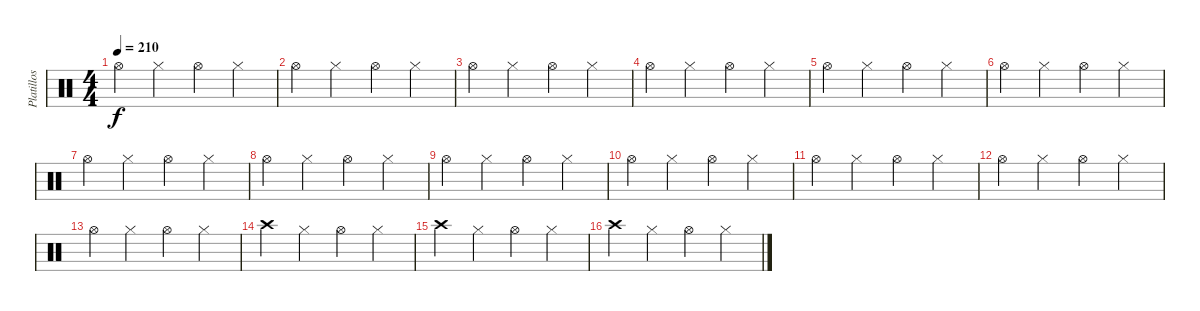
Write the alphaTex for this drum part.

\track ("Platillos (Leo)" "Platillos ") {instrument percussion}
\staff {score}
\articulation defaults
\ts (4 4)
\tempo 210
\clef neutral
\ks c "Hi-Hat (open)".4{dy f} "Hi-Hat (closed)".4 "Hi-Hat (open)".4 "Hi-Hat (closed)".4
|
"Hi-Hat (open)".4 "Hi-Hat (closed)".4 "Hi-Hat (open)".4 "Hi-Hat (closed)".4 |
"Hi-Hat (open)".4 "Hi-Hat (closed)".4 "Hi-Hat (open)".4 "Hi-Hat (closed)".4 |
"Hi-Hat (open)".4 "Hi-Hat (closed)".4 "Hi-Hat (open)".4 "Hi-Hat (closed)".4 |
"Hi-Hat (open)".4 "Hi-Hat (closed)".4 "Hi-Hat (open)".4 "Hi-Hat (closed)".4 |
"Hi-Hat (open)".4 "Hi-Hat (closed)".4 "Hi-Hat (open)".4 "Hi-Hat (closed)".4 |
"Hi-Hat (open)".4 "Hi-Hat (closed)".4 "Hi-Hat (open)".4 "Hi-Hat (closed)".4 |
"Hi-Hat (open)".4 "Hi-Hat (closed)".4 "Hi-Hat (open)".4 "Hi-Hat (closed)".4 |
"Hi-Hat (open)".4 "Hi-Hat (closed)".4 "Hi-Hat (open)".4 "Hi-Hat (closed)".4 |
"Hi-Hat (open)".4 "Hi-Hat (closed)".4 "Hi-Hat (open)".4 "Hi-Hat (closed)".4 |
"Hi-Hat (open)".4 "Hi-Hat (closed)".4 "Hi-Hat (open)".4 "Hi-Hat (closed)".4 |
"Hi-Hat (open)".4 "Hi-Hat (closed)".4 "Hi-Hat (open)".4 "Hi-Hat (closed)".4 |
"Hi-Hat (open)".4 "Hi-Hat (closed)".4 "Hi-Hat (open)".4 "Hi-Hat (closed)".4 |
"Crash high (hit)".4 "Hi-Hat (closed)".4 "Hi-Hat (open)".4 "Hi-Hat (closed)".4 |
"Crash high (hit)".4 "Hi-Hat (closed)".4 "Hi-Hat (open)".4 "Hi-Hat (closed)".4 |
"Crash high (hit)".4 "Hi-Hat (closed)".4 "Hi-Hat (open)".4 "Hi-Hat (closed)".4
